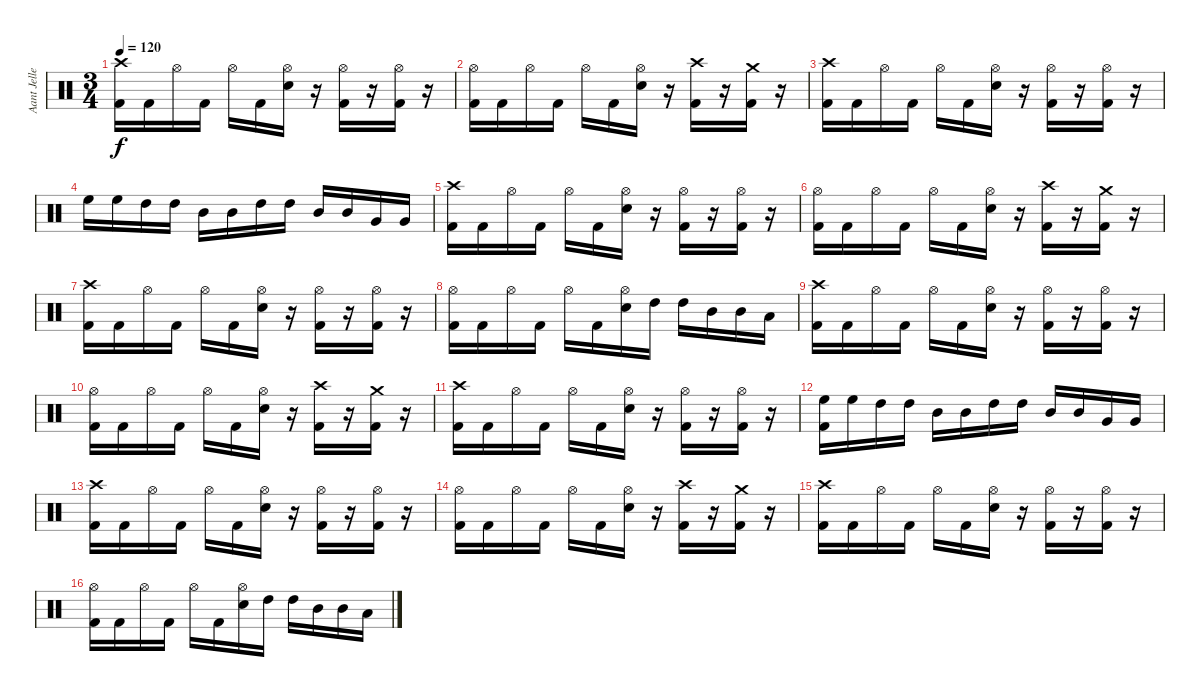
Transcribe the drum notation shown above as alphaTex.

\track ("Aant Jelle" "Aant Jelle") {instrument percussion}
\staff {score}
\articulation defaults
\ts (3 4)
\tempo 120
\clef neutral
\ks c
("Crash high (hit)" "Kick (hit) 2").16{dy f} "Kick (hit) 2".16 "Hi-Hat (open)".16 "Kick (hit) 2".16 "Hi-Hat (open)".16 "Kick (hit) 2".16 ("Hi-Hat (open)" "Snare (hit) 2").16 r.16 ("Hi-Hat (open)" "Kick (hit) 2").16 r.16 ("Hi-Hat (open)" "Kick (hit) 2").16 r.16 |
("Hi-Hat (open)" "Kick (hit) 2").16 "Kick (hit) 2".16 "Hi-Hat (open)".16 "Kick (hit) 2".16 "Hi-Hat (open)".16 "Kick (hit) 2".16 ("Hi-Hat (open)" "Snare (hit) 2").16 r.16 ("Crash high (hit)" "Kick (hit) 2").16 r.16 ("Crash medium (hit)" "Kick (hit) 2").16 r.16 |
("Crash high (hit)" "Kick (hit) 2").16 "Kick (hit) 2".16 "Hi-Hat (open)".16 "Kick (hit) 2".16 "Hi-Hat (open)".16 "Kick (hit) 2".16 ("Hi-Hat (open)" "Snare (hit) 2").16 r.16 ("Hi-Hat (open)" "Kick (hit) 2").16 r.16 ("Hi-Hat (open)" "Kick (hit) 2").16 r.16 |
"High Floor Tom (hit)".16 "High Floor Tom (hit)".16 "High Tom (hit)".16 "High Tom (hit)".16 "Mid Tom (hit)".16 "Mid Tom (hit)".16 "High Tom (hit)".16 "High Tom (hit)".16 "Mid Tom (hit)".16 "Mid Tom (hit)".16 "Very Low Tom (hit)".16 "Very Low Tom (hit)".16 |
("Crash high (hit)" "Kick (hit) 2").16 "Kick (hit) 2".16 "Hi-Hat (open)".16 "Kick (hit) 2".16 "Hi-Hat (open)".16 "Kick (hit) 2".16 ("Hi-Hat (open)" "Snare (hit) 2").16 r.16 ("Hi-Hat (open)" "Kick (hit) 2").16 r.16 ("Hi-Hat (open)" "Kick (hit) 2").16 r.16 |
("Hi-Hat (open)" "Kick (hit) 2").16 "Kick (hit) 2".16 "Hi-Hat (open)".16 "Kick (hit) 2".16 "Hi-Hat (open)".16 "Kick (hit) 2".16 ("Hi-Hat (open)" "Snare (hit) 2").16 r.16 ("Crash high (hit)" "Kick (hit) 2").16 r.16 ("Crash medium (hit)" "Kick (hit) 2").16 r.16 |
("Crash high (hit)" "Kick (hit) 2").16 "Kick (hit) 2".16 "Hi-Hat (open)".16 "Kick (hit) 2".16 "Hi-Hat (open)".16 "Kick (hit) 2".16 ("Hi-Hat (open)" "Snare (hit) 2").16 r.16 ("Hi-Hat (open)" "Kick (hit) 2").16 r.16 ("Hi-Hat (open)" "Kick (hit) 2").16 r.16 |
("Hi-Hat (open)" "Kick (hit) 2").16 "Kick (hit) 2".16 "Hi-Hat (open)".16 "Kick (hit) 2".16 "Hi-Hat (open)".16 "Kick (hit) 2".16 ("Hi-Hat (open)" "Snare (hit) 2").16 "High Tom (hit)".16 "High Tom (hit)".16 "Mid Tom (hit)".16 "Mid Tom (hit)".16 "Low Tom (hit)".16 |
("Crash high (hit)" "Kick (hit) 2").16 "Kick (hit) 2".16 "Hi-Hat (open)".16 "Kick (hit) 2".16 "Hi-Hat (open)".16 "Kick (hit) 2".16 ("Hi-Hat (open)" "Snare (hit) 2").16 r.16 ("Hi-Hat (open)" "Kick (hit) 2").16 r.16 ("Hi-Hat (open)" "Kick (hit) 2").16 r.16 |
("Hi-Hat (open)" "Kick (hit) 2").16 "Kick (hit) 2".16 "Hi-Hat (open)".16 "Kick (hit) 2".16 "Hi-Hat (open)".16 "Kick (hit) 2".16 ("Hi-Hat (open)" "Snare (hit) 2").16 r.16 ("Crash high (hit)" "Kick (hit) 2").16 r.16 ("Crash medium (hit)" "Kick (hit) 2").16 r.16 |
("Crash high (hit)" "Kick (hit) 2").16 "Kick (hit) 2".16 "Hi-Hat (open)".16 "Kick (hit) 2".16 "Hi-Hat (open)".16 "Kick (hit) 2".16 ("Hi-Hat (open)" "Snare (hit) 2").16 r.16 ("Hi-Hat (open)" "Kick (hit) 2").16 r.16 ("Hi-Hat (open)" "Kick (hit) 2").16 r.16 |
("High Floor Tom (hit)" "Kick (hit) 2").16 "High Floor Tom (hit)".16 "High Tom (hit)".16 "High Tom (hit)".16 "Mid Tom (hit)".16 "Mid Tom (hit)".16 "High Tom (hit)".16 "High Tom (hit)".16 "Mid Tom (hit)".16 "Mid Tom (hit)".16 "Very Low Tom (hit)".16 "Very Low Tom (hit)".16 |
("Crash high (hit)" "Kick (hit) 2").16 "Kick (hit) 2".16 "Hi-Hat (open)".16 "Kick (hit) 2".16 "Hi-Hat (open)".16 "Kick (hit) 2".16 ("Hi-Hat (open)" "Snare (hit) 2").16 r.16 ("Hi-Hat (open)" "Kick (hit) 2").16 r.16 ("Hi-Hat (open)" "Kick (hit) 2").16 r.16 |
("Hi-Hat (open)" "Kick (hit) 2").16 "Kick (hit) 2".16 "Hi-Hat (open)".16 "Kick (hit) 2".16 "Hi-Hat (open)".16 "Kick (hit) 2".16 ("Hi-Hat (open)" "Snare (hit) 2").16 r.16 ("Crash high (hit)" "Kick (hit) 2").16 r.16 ("Crash medium (hit)" "Kick (hit) 2").16 r.16 |
("Crash high (hit)" "Kick (hit) 2").16 "Kick (hit) 2".16 "Hi-Hat (open)".16 "Kick (hit) 2".16 "Hi-Hat (open)".16 "Kick (hit) 2".16 ("Hi-Hat (open)" "Snare (hit) 2").16 r.16 ("Hi-Hat (open)" "Kick (hit) 2").16 r.16 ("Hi-Hat (open)" "Kick (hit) 2").16 r.16 |
("Hi-Hat (open)" "Kick (hit) 2").16 "Kick (hit) 2".16 "Hi-Hat (open)".16 "Kick (hit) 2".16 "Hi-Hat (open)".16 "Kick (hit) 2".16 ("Hi-Hat (open)" "Snare (hit) 2").16 "High Tom (hit)".16 "High Tom (hit)".16 "Mid Tom (hit)".16 "Mid Tom (hit)".16 "Low Tom (hit)".16
